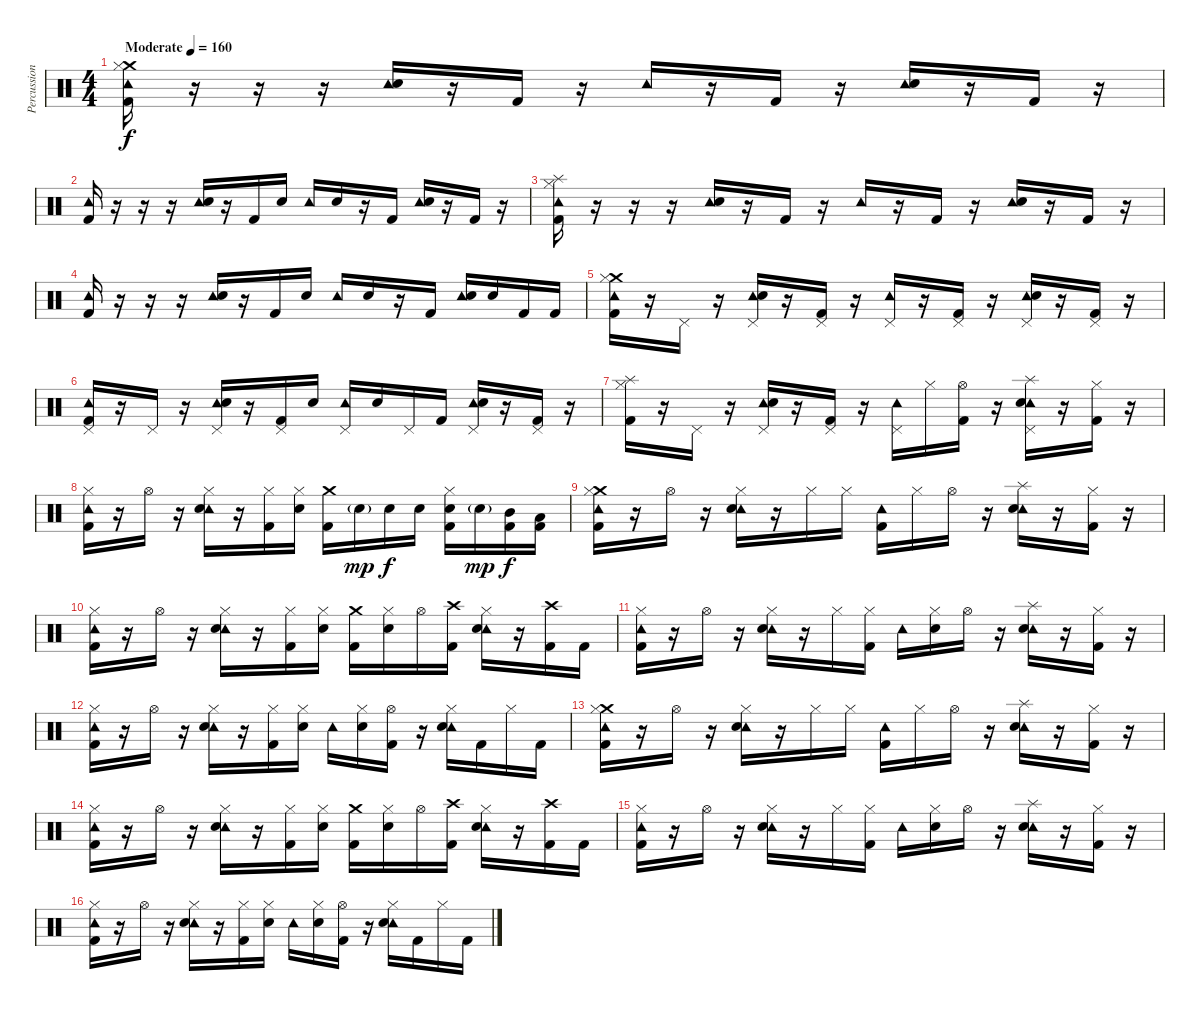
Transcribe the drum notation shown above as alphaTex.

\track ("Percussion" "Percussion") {instrument percussion}
\staff {score}
\articulation defaults
\ts (4 4)
\tempo (160 "Moderate")
\clef neutral
\ks c
("Crash medium (hit)" "Tambourine (hit)" "Hi-Hat (closed)" "Kick (hit) 2").16{dy f} r.16 r.16 r.16 ("Tambourine (hit)" "Electric Snare (hit)").16 r.16 "Kick (hit) 2".16 r.16 "Tambourine (hit)".16 r.16 "Kick (hit) 2".16 r.16 ("Tambourine (hit)" "Electric Snare (hit)").16 r.16 "Kick (hit) 2".16 r.16 |
("Tambourine (hit)" "Kick (hit) 2").16 r.16 r.16 r.16 ("Tambourine (hit)" "Electric Snare (hit)").16 r.16 "Kick (hit) 2".16 "Electric Snare (hit)".16 "Tambourine (hit)".16 "Electric Snare (hit)".16 r.16 "Kick (hit) 2".16 ("Tambourine (hit)" "Electric Snare (hit)").16 r.16 "Kick (hit) 2".16 r.16 |
("Splash (hit)" "Tambourine (hit)" "Hi-Hat (closed)" "Kick (hit) 2").16 r.16 r.16 r.16 ("Tambourine (hit)" "Electric Snare (hit)").16 r.16 "Kick (hit) 2".16 r.16 "Tambourine (hit)".16 r.16 "Kick (hit) 2".16 r.16 ("Tambourine (hit)" "Electric Snare (hit)").16 r.16 "Kick (hit) 2".16 r.16 |
("Tambourine (hit)" "Kick (hit) 2").16 r.16 r.16 r.16 ("Tambourine (hit)" "Electric Snare (hit)").16 r.16 "Kick (hit) 2".16 "Electric Snare (hit)".16 "Tambourine (hit)".16 "Electric Snare (hit)".16 r.16 "Kick (hit) 2".16 ("Tambourine (hit)" "Electric Snare (hit)").16 "Electric Snare (hit)".16 "Kick (hit) 2".16 "Kick (hit) 2".16 |
("Crash medium (hit)" "Tambourine (hit)" "Hi-Hat (closed)" "Kick (hit) 2").16 r.16 "Pedal Hi-Hat (hit)".16 r.16 ("Tambourine (hit)" "Pedal Hi-Hat (hit)" "Electric Snare (hit)").16 r.16 ("Pedal Hi-Hat (hit)" "Kick (hit) 2").16 r.16 ("Tambourine (hit)" "Pedal Hi-Hat (hit)").16 r.16 ("Pedal Hi-Hat (hit)" "Kick (hit) 2").16 r.16 ("Tambourine (hit)" "Pedal Hi-Hat (hit)" "Electric Snare (hit)").16 r.16 ("Pedal Hi-Hat (hit)" "Kick (hit) 2").16 r.16 |
("Tambourine (hit)" "Pedal Hi-Hat (hit)" "Kick (hit) 2").16 r.16 "Pedal Hi-Hat (hit)".16 r.16 ("Tambourine (hit)" "Pedal Hi-Hat (hit)" "Electric Snare (hit)").16 r.16 ("Pedal Hi-Hat (hit)" "Kick (hit) 2").16 "Electric Snare (hit)".16 ("Tambourine (hit)" "Pedal Hi-Hat (hit)").16 "Electric Snare (hit)".16 "Pedal Hi-Hat (hit)".16 "Kick (hit) 2".16 ("Tambourine (hit)" "Pedal Hi-Hat (hit)" "Electric Snare (hit)").16 r.16 ("Pedal Hi-Hat (hit)" "Kick (hit) 2").16 r.16 |
("Splash (hit)" "Hi-Hat (closed)" "Kick (hit) 2").16 r.16 "Pedal Hi-Hat (hit)".16 r.16 ("Tambourine (hit)" "Pedal Hi-Hat (hit)" "Electric Snare (hit)").16 r.16 ("Pedal Hi-Hat (hit)" "Kick (hit) 2").16 r.16 ("Tambourine (hit)" "Pedal Hi-Hat (hit)").16 "Hi-Hat (closed)".16 ("Hi-Hat (open)" "Kick (hit) 2").16 r.16 ("Tambourine (hit)" "Pedal Hi-Hat (hit)" "Electric Snare (hit)" "Splash (hit)").16 r.16 ("Hi-Hat (closed)" "Kick (hit) 2").16 r.16 |
("Tambourine (hit)" "Hi-Hat (closed)" "Kick (hit) 2").16 r.16 "Hi-Hat (open)".16 r.16 ("Tambourine (hit)" "Hi-Hat (closed)" "Electric Snare (hit)").16 r.16 ("Hi-Hat (closed)" "Kick (hit) 2").16 ("Electric Snare (hit)" "Hi-Hat (closed)").16 ("Crash medium (hit)" "Kick (hit) 2").16 "Electric Snare (hit)"{g}.16{dy mp} "Electric Snare (hit)".16{dy f} "Electric Snare (hit)".16 ("Electric Snare (hit)" "Hi-Hat (closed)" "Kick (hit) 2").16 "Electric Snare (hit)"{g}.16{dy mp} ("Kick (hit) 2" "Mid Tom (hit)").16{dy f} ("Kick (hit) 2" "Low Tom (hit)").16 |
("Crash medium (hit)" "Tambourine (hit)" "Hi-Hat (closed)" "Kick (hit) 2").16 r.16 "Hi-Hat (open)".16 r.16 ("Tambourine (hit)" "Hi-Hat (closed)" "Electric Snare (hit)").16 r.16 "Hi-Hat (closed)".16 "Hi-Hat (closed)".16 ("Tambourine (hit)" "Kick (hit) 2").16 "Hi-Hat (closed)".16 "Hi-Hat (open)".16 r.16 ("Tambourine (hit)" "Electric Snare (hit)" "Splash (hit)").16 r.16 ("Hi-Hat (closed)" "Kick (hit) 2").16 r.16 |
("Tambourine (hit)" "Hi-Hat (closed)" "Kick (hit) 2").16 r.16 "Hi-Hat (open)".16 r.16 ("Tambourine (hit)" "Hi-Hat (closed)" "Electric Snare (hit)").16 r.16 ("Hi-Hat (closed)" "Kick (hit) 2").16 ("Electric Snare (hit)" "Hi-Hat (closed)").16 ("Crash medium (hit)" "Kick (hit) 2").16 ("Hi-Hat (closed)" "Electric Snare (hit)").16 "Hi-Hat (open)".16 ("Crash high (hit)" "Kick (hit) 2").16 ("Tambourine (hit)" "Hi-Hat (closed)" "Electric Snare (hit)").16 r.16 ("Crash high (hit)" "Kick (hit) 2").16 "Kick (hit) 2".16 |
("Tambourine (hit)" "Hi-Hat (closed)" "Kick (hit) 2").16 r.16 "Hi-Hat (open)".16 r.16 ("Tambourine (hit)" "Hi-Hat (closed)" "Electric Snare (hit)").16 r.16 "Hi-Hat (closed)".16 ("Hi-Hat (closed)" "Kick (hit) 2").16 "Tambourine (hit)".16 ("Hi-Hat (closed)" "Electric Snare (hit)").16 "Hi-Hat (open)".16 r.16 ("Tambourine (hit)" "Electric Snare (hit)" "Splash (hit)").16 r.16 ("Hi-Hat (closed)" "Kick (hit) 2").16 r.16 |
("Tambourine (hit)" "Hi-Hat (closed)" "Kick (hit) 2").16 r.16 "Hi-Hat (open)".16 r.16 ("Tambourine (hit)" "Hi-Hat (closed)" "Electric Snare (hit)").16 r.16 ("Hi-Hat (closed)" "Kick (hit) 2").16 ("Electric Snare (hit)" "Hi-Hat (closed)").16 "Tambourine (hit)".16 ("Hi-Hat (closed)" "Electric Snare (hit)").16 ("Hi-Hat (open)" "Kick (hit) 2").16 r.16 ("Tambourine (hit)" "Hi-Hat (closed)" "Electric Snare (hit)").16 "Kick (hit) 2".16 "Hi-Hat (closed)".16 "Kick (hit) 2".16 |
("Crash medium (hit)" "Tambourine (hit)" "Hi-Hat (closed)" "Kick (hit) 2").16 r.16 "Hi-Hat (open)".16 r.16 ("Tambourine (hit)" "Hi-Hat (closed)" "Electric Snare (hit)").16 r.16 "Hi-Hat (closed)".16 "Hi-Hat (closed)".16 ("Tambourine (hit)" "Kick (hit) 2").16 "Hi-Hat (closed)".16 "Hi-Hat (open)".16 r.16 ("Tambourine (hit)" "Electric Snare (hit)" "Splash (hit)").16 r.16 ("Hi-Hat (closed)" "Kick (hit) 2").16 r.16 |
("Tambourine (hit)" "Hi-Hat (closed)" "Kick (hit) 2").16 r.16 "Hi-Hat (open)".16 r.16 ("Tambourine (hit)" "Hi-Hat (closed)" "Electric Snare (hit)").16 r.16 ("Hi-Hat (closed)" "Kick (hit) 2").16 ("Electric Snare (hit)" "Hi-Hat (closed)").16 ("Crash medium (hit)" "Kick (hit) 2").16 ("Hi-Hat (closed)" "Electric Snare (hit)").16 "Hi-Hat (open)".16 ("Crash high (hit)" "Kick (hit) 2").16 ("Tambourine (hit)" "Hi-Hat (closed)" "Electric Snare (hit)").16 r.16 ("Crash high (hit)" "Kick (hit) 2").16 "Kick (hit) 2".16 |
("Tambourine (hit)" "Hi-Hat (closed)" "Kick (hit) 2").16 r.16 "Hi-Hat (open)".16 r.16 ("Tambourine (hit)" "Hi-Hat (closed)" "Electric Snare (hit)").16 r.16 "Hi-Hat (closed)".16 ("Hi-Hat (closed)" "Kick (hit) 2").16 "Tambourine (hit)".16 ("Hi-Hat (closed)" "Electric Snare (hit)").16 "Hi-Hat (open)".16 r.16 ("Tambourine (hit)" "Electric Snare (hit)" "Splash (hit)").16 r.16 ("Hi-Hat (closed)" "Kick (hit) 2").16 r.16 |
("Tambourine (hit)" "Hi-Hat (closed)" "Kick (hit) 2").16 r.16 "Hi-Hat (open)".16 r.16 ("Tambourine (hit)" "Hi-Hat (closed)" "Electric Snare (hit)").16 r.16 ("Hi-Hat (closed)" "Kick (hit) 2").16 ("Electric Snare (hit)" "Hi-Hat (closed)").16 "Tambourine (hit)".16 ("Hi-Hat (closed)" "Electric Snare (hit)").16 ("Hi-Hat (open)" "Kick (hit) 2").16 r.16 ("Tambourine (hit)" "Hi-Hat (closed)" "Electric Snare (hit)").16 "Kick (hit) 2".16 "Hi-Hat (closed)".16 "Kick (hit) 2".16
